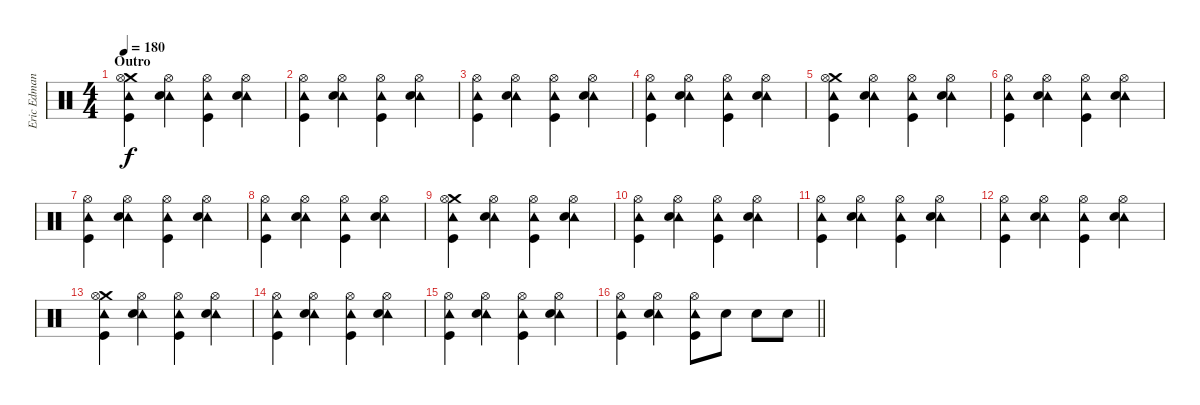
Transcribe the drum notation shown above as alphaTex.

\track ("Eric Edman - Drums" "Eric Edman") {instrument percussion}
\staff {score}
\articulation defaults
\ts (4 4)
\section ("" "Outro")
\tempo 180
\clef neutral
\ks c
("Crash medium (hit)" "Tambourine (hit)" "Kick (hit)" "Hi-Hat (open)").4{dy f} ("Tambourine (hit)" "Snare (hit) 2" "Hi-Hat (open)").4 ("Tambourine (hit)" "Kick (hit)" "Hi-Hat (open)").4 ("Tambourine (hit)" "Snare (hit) 2" "Hi-Hat (open)").4 |
("Tambourine (hit)" "Kick (hit)" "Hi-Hat (open)").4 ("Tambourine (hit)" "Snare (hit) 2" "Hi-Hat (open)").4 ("Tambourine (hit)" "Kick (hit)" "Hi-Hat (open)").4 ("Tambourine (hit)" "Snare (hit) 2" "Hi-Hat (open)").4 |
("Tambourine (hit)" "Kick (hit)" "Hi-Hat (open)").4 ("Tambourine (hit)" "Snare (hit) 2" "Hi-Hat (open)").4 ("Tambourine (hit)" "Kick (hit)" "Hi-Hat (open)").4 ("Tambourine (hit)" "Snare (hit) 2" "Hi-Hat (open)").4 |
("Tambourine (hit)" "Kick (hit)" "Hi-Hat (open)").4 ("Tambourine (hit)" "Snare (hit) 2" "Hi-Hat (open)").4 ("Tambourine (hit)" "Kick (hit)" "Hi-Hat (open)").4 ("Tambourine (hit)" "Snare (hit) 2" "Hi-Hat (open)").4 |
("Crash medium (hit)" "Tambourine (hit)" "Kick (hit)" "Hi-Hat (open)").4 ("Tambourine (hit)" "Snare (hit) 2" "Hi-Hat (open)").4 ("Tambourine (hit)" "Kick (hit)" "Hi-Hat (open)").4 ("Tambourine (hit)" "Snare (hit) 2" "Hi-Hat (open)").4 |
("Tambourine (hit)" "Kick (hit)" "Hi-Hat (open)").4 ("Tambourine (hit)" "Snare (hit) 2" "Hi-Hat (open)").4 ("Tambourine (hit)" "Kick (hit)" "Hi-Hat (open)").4 ("Tambourine (hit)" "Snare (hit) 2" "Hi-Hat (open)").4 |
("Tambourine (hit)" "Kick (hit)" "Hi-Hat (open)").4 ("Tambourine (hit)" "Snare (hit) 2" "Hi-Hat (open)").4 ("Tambourine (hit)" "Kick (hit)" "Hi-Hat (open)").4 ("Tambourine (hit)" "Snare (hit) 2" "Hi-Hat (open)").4 |
("Tambourine (hit)" "Kick (hit)" "Hi-Hat (open)").4 ("Tambourine (hit)" "Snare (hit) 2" "Hi-Hat (open)").4 ("Tambourine (hit)" "Kick (hit)" "Hi-Hat (open)").4 ("Tambourine (hit)" "Snare (hit) 2" "Hi-Hat (open)").4 |
("Crash medium (hit)" "Tambourine (hit)" "Kick (hit)" "Hi-Hat (open)").4 ("Tambourine (hit)" "Snare (hit) 2" "Hi-Hat (open)").4 ("Tambourine (hit)" "Kick (hit)" "Hi-Hat (open)").4 ("Tambourine (hit)" "Snare (hit) 2" "Hi-Hat (open)").4 |
("Tambourine (hit)" "Kick (hit)" "Hi-Hat (open)").4 ("Tambourine (hit)" "Snare (hit) 2" "Hi-Hat (open)").4 ("Tambourine (hit)" "Kick (hit)" "Hi-Hat (open)").4 ("Tambourine (hit)" "Snare (hit) 2" "Hi-Hat (open)").4 |
("Tambourine (hit)" "Kick (hit)" "Hi-Hat (open)").4 ("Tambourine (hit)" "Snare (hit) 2" "Hi-Hat (open)").4 ("Tambourine (hit)" "Kick (hit)" "Hi-Hat (open)").4 ("Tambourine (hit)" "Snare (hit) 2" "Hi-Hat (open)").4 |
("Tambourine (hit)" "Kick (hit)" "Hi-Hat (open)").4 ("Tambourine (hit)" "Snare (hit) 2" "Hi-Hat (open)").4 ("Tambourine (hit)" "Kick (hit)" "Hi-Hat (open)").4 ("Tambourine (hit)" "Snare (hit) 2" "Hi-Hat (open)").4 |
("Crash medium (hit)" "Tambourine (hit)" "Kick (hit)" "Hi-Hat (open)").4 ("Tambourine (hit)" "Snare (hit) 2" "Hi-Hat (open)").4 ("Tambourine (hit)" "Kick (hit)" "Hi-Hat (open)").4 ("Tambourine (hit)" "Snare (hit) 2" "Hi-Hat (open)").4 |
("Tambourine (hit)" "Kick (hit)" "Hi-Hat (open)").4 ("Tambourine (hit)" "Snare (hit) 2" "Hi-Hat (open)").4 ("Tambourine (hit)" "Kick (hit)" "Hi-Hat (open)").4 ("Tambourine (hit)" "Snare (hit) 2" "Hi-Hat (open)").4 |
("Tambourine (hit)" "Kick (hit)" "Hi-Hat (open)").4 ("Tambourine (hit)" "Snare (hit) 2" "Hi-Hat (open)").4 ("Tambourine (hit)" "Kick (hit)" "Hi-Hat (open)").4 ("Tambourine (hit)" "Snare (hit) 2" "Hi-Hat (open)").4 |
\barLineRight lightlight
("Tambourine (hit)" "Kick (hit)" "Hi-Hat (open)").4 ("Tambourine (hit)" "Snare (hit) 2" "Hi-Hat (open)").4 ("Tambourine (hit)" "Kick (hit)" "Hi-Hat (open)").8 "Snare (hit) 2".8 "Snare (hit) 2".8 "Snare (hit) 2".8
